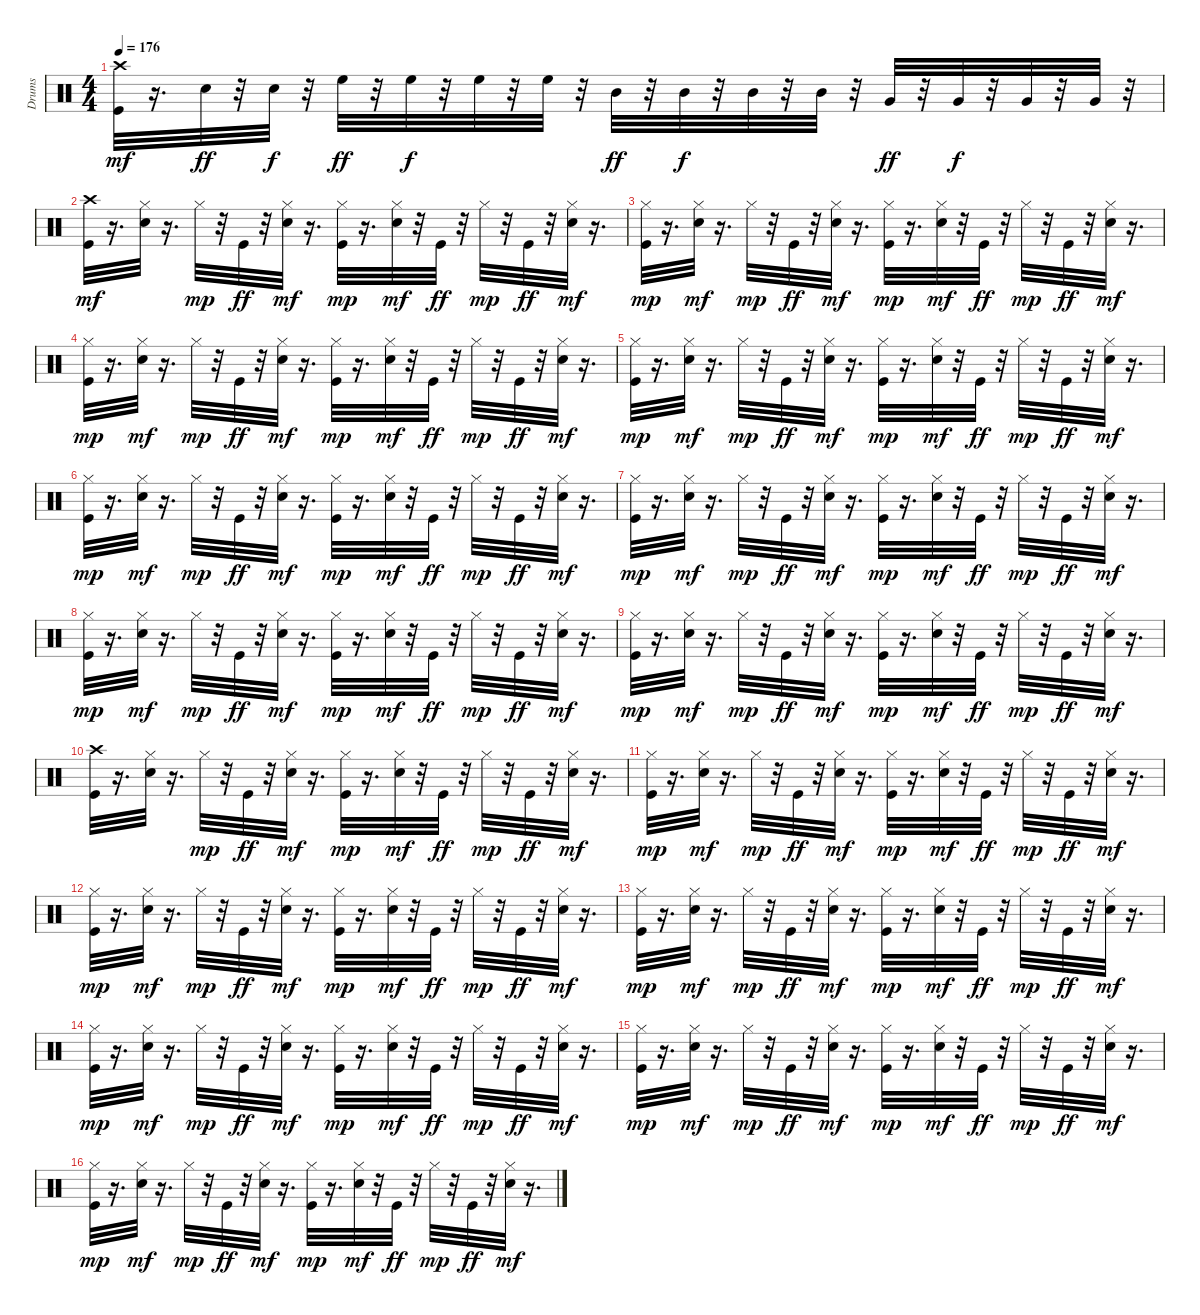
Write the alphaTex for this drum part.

\track ("Drums" "Drums") {instrument percussion}
\staff {score}
\articulation defaults
\ts (4 4)
\tempo 176
\clef neutral
\ks c
("Kick (hit)" "Crash high (hit)").32{dy mf} r.16{d} "Snare (hit) 2".32{dy ff} r.32 "Snare (hit) 2".32{dy f} r.32 "High Floor Tom (hit)".32{dy ff} r.32 "High Floor Tom (hit)".32{dy f} r.32 "High Floor Tom (hit)".32 r.32 "High Floor Tom (hit)".32 r.32 "Mid Tom (hit)".32{dy ff} r.32 "Mid Tom (hit)".32{dy f} r.32 "Mid Tom (hit)".32 r.32 "Mid Tom (hit)".32 r.32 "Very Low Tom (hit)".32{dy ff} r.32 "Very Low Tom (hit)".32{dy f} r.32 "Very Low Tom (hit)".32 r.32 "Very Low Tom (hit)".32 r.32 |
("Kick (hit)" "Crash high (hit)").32{dy mf} r.16{d} ("Snare (hit) 2" "Hi-Hat (closed)").32 r.16{d} "Hi-Hat (closed)".32{dy mp} r.32 "Kick (hit)".32{dy ff} r.32 ("Snare (hit) 2" "Hi-Hat (closed)").32{dy mf} r.16{d} ("Kick (hit)" "Hi-Hat (closed)").32{dy mp} r.16{d} ("Snare (hit) 2" "Hi-Hat (closed)").32{dy mf} r.32 "Kick (hit)".32{dy ff} r.32 "Hi-Hat (closed)".32{dy mp} r.32 "Kick (hit)".32{dy ff} r.32 ("Snare (hit) 2" "Hi-Hat (closed)").32{dy mf} r.16{d} |
("Kick (hit)" "Hi-Hat (closed)").32{dy mp} r.16{d} ("Snare (hit) 2" "Hi-Hat (closed)").32{dy mf} r.16{d} "Hi-Hat (closed)".32{dy mp} r.32 "Kick (hit)".32{dy ff} r.32 ("Snare (hit) 2" "Hi-Hat (closed)").32{dy mf} r.16{d} ("Kick (hit)" "Hi-Hat (closed)").32{dy mp} r.16{d} ("Snare (hit) 2" "Hi-Hat (closed)").32{dy mf} r.32 "Kick (hit)".32{dy ff} r.32 "Hi-Hat (closed)".32{dy mp} r.32 "Kick (hit)".32{dy ff} r.32 ("Snare (hit) 2" "Hi-Hat (closed)").32{dy mf} r.16{d} |
("Kick (hit)" "Hi-Hat (closed)").32{dy mp} r.16{d} ("Snare (hit) 2" "Hi-Hat (closed)").32{dy mf} r.16{d} "Hi-Hat (closed)".32{dy mp} r.32 "Kick (hit)".32{dy ff} r.32 ("Snare (hit) 2" "Hi-Hat (closed)").32{dy mf} r.16{d} ("Kick (hit)" "Hi-Hat (closed)").32{dy mp} r.16{d} ("Snare (hit) 2" "Hi-Hat (closed)").32{dy mf} r.32 "Kick (hit)".32{dy ff} r.32 "Hi-Hat (closed)".32{dy mp} r.32 "Kick (hit)".32{dy ff} r.32 ("Snare (hit) 2" "Hi-Hat (closed)").32{dy mf} r.16{d} |
("Kick (hit)" "Hi-Hat (closed)").32{dy mp} r.16{d} ("Snare (hit) 2" "Hi-Hat (closed)").32{dy mf} r.16{d} "Hi-Hat (closed)".32{dy mp} r.32 "Kick (hit)".32{dy ff} r.32 ("Snare (hit) 2" "Hi-Hat (closed)").32{dy mf} r.16{d} ("Kick (hit)" "Hi-Hat (closed)").32{dy mp} r.16{d} ("Snare (hit) 2" "Hi-Hat (closed)").32{dy mf} r.32 "Kick (hit)".32{dy ff} r.32 "Hi-Hat (closed)".32{dy mp} r.32 "Kick (hit)".32{dy ff} r.32 ("Snare (hit) 2" "Hi-Hat (closed)").32{dy mf} r.16{d} |
("Kick (hit)" "Hi-Hat (closed)").32{dy mp} r.16{d} ("Snare (hit) 2" "Hi-Hat (closed)").32{dy mf} r.16{d} "Hi-Hat (closed)".32{dy mp} r.32 "Kick (hit)".32{dy ff} r.32 ("Snare (hit) 2" "Hi-Hat (closed)").32{dy mf} r.16{d} ("Kick (hit)" "Hi-Hat (closed)").32{dy mp} r.16{d} ("Snare (hit) 2" "Hi-Hat (closed)").32{dy mf} r.32 "Kick (hit)".32{dy ff} r.32 "Hi-Hat (closed)".32{dy mp} r.32 "Kick (hit)".32{dy ff} r.32 ("Snare (hit) 2" "Hi-Hat (closed)").32{dy mf} r.16{d} |
("Kick (hit)" "Hi-Hat (closed)").32{dy mp} r.16{d} ("Snare (hit) 2" "Hi-Hat (closed)").32{dy mf} r.16{d} "Hi-Hat (closed)".32{dy mp} r.32 "Kick (hit)".32{dy ff} r.32 ("Snare (hit) 2" "Hi-Hat (closed)").32{dy mf} r.16{d} ("Kick (hit)" "Hi-Hat (closed)").32{dy mp} r.16{d} ("Snare (hit) 2" "Hi-Hat (closed)").32{dy mf} r.32 "Kick (hit)".32{dy ff} r.32 "Hi-Hat (closed)".32{dy mp} r.32 "Kick (hit)".32{dy ff} r.32 ("Snare (hit) 2" "Hi-Hat (closed)").32{dy mf} r.16{d} |
("Kick (hit)" "Hi-Hat (closed)").32{dy mp} r.16{d} ("Snare (hit) 2" "Hi-Hat (closed)").32{dy mf} r.16{d} "Hi-Hat (closed)".32{dy mp} r.32 "Kick (hit)".32{dy ff} r.32 ("Snare (hit) 2" "Hi-Hat (closed)").32{dy mf} r.16{d} ("Kick (hit)" "Hi-Hat (closed)").32{dy mp} r.16{d} ("Snare (hit) 2" "Hi-Hat (closed)").32{dy mf} r.32 "Kick (hit)".32{dy ff} r.32 "Hi-Hat (closed)".32{dy mp} r.32 "Kick (hit)".32{dy ff} r.32 ("Snare (hit) 2" "Hi-Hat (closed)").32{dy mf} r.16{d} |
("Kick (hit)" "Hi-Hat (closed)").32{dy mp} r.16{d} ("Snare (hit) 2" "Hi-Hat (closed)").32{dy mf} r.16{d} "Hi-Hat (closed)".32{dy mp} r.32 "Kick (hit)".32{dy ff} r.32 ("Snare (hit) 2" "Hi-Hat (closed)").32{dy mf} r.16{d} ("Kick (hit)" "Hi-Hat (closed)").32{dy mp} r.16{d} ("Snare (hit) 2" "Hi-Hat (closed)").32{dy mf} r.32 "Kick (hit)".32{dy ff} r.32 "Hi-Hat (closed)".32{dy mp} r.32 "Kick (hit)".32{dy ff} r.32 ("Snare (hit) 2" "Hi-Hat (closed)").32{dy mf} r.16{d} |
("Kick (hit)" "Crash high (hit)").32 r.16{d} ("Snare (hit) 2" "Hi-Hat (closed)").32 r.16{d} "Hi-Hat (closed)".32{dy mp} r.32 "Kick (hit)".32{dy ff} r.32 ("Snare (hit) 2" "Hi-Hat (closed)").32{dy mf} r.16{d} ("Kick (hit)" "Hi-Hat (closed)").32{dy mp} r.16{d} ("Snare (hit) 2" "Hi-Hat (closed)").32{dy mf} r.32 "Kick (hit)".32{dy ff} r.32 "Hi-Hat (closed)".32{dy mp} r.32 "Kick (hit)".32{dy ff} r.32 ("Snare (hit) 2" "Hi-Hat (closed)").32{dy mf} r.16{d} |
("Kick (hit)" "Hi-Hat (closed)").32{dy mp} r.16{d} ("Snare (hit) 2" "Hi-Hat (closed)").32{dy mf} r.16{d} "Hi-Hat (closed)".32{dy mp} r.32 "Kick (hit)".32{dy ff} r.32 ("Snare (hit) 2" "Hi-Hat (closed)").32{dy mf} r.16{d} ("Kick (hit)" "Hi-Hat (closed)").32{dy mp} r.16{d} ("Snare (hit) 2" "Hi-Hat (closed)").32{dy mf} r.32 "Kick (hit)".32{dy ff} r.32 "Hi-Hat (closed)".32{dy mp} r.32 "Kick (hit)".32{dy ff} r.32 ("Snare (hit) 2" "Hi-Hat (closed)").32{dy mf} r.16{d} |
("Kick (hit)" "Hi-Hat (closed)").32{dy mp} r.16{d} ("Snare (hit) 2" "Hi-Hat (closed)").32{dy mf} r.16{d} "Hi-Hat (closed)".32{dy mp} r.32 "Kick (hit)".32{dy ff} r.32 ("Snare (hit) 2" "Hi-Hat (closed)").32{dy mf} r.16{d} ("Kick (hit)" "Hi-Hat (closed)").32{dy mp} r.16{d} ("Snare (hit) 2" "Hi-Hat (closed)").32{dy mf} r.32 "Kick (hit)".32{dy ff} r.32 "Hi-Hat (closed)".32{dy mp} r.32 "Kick (hit)".32{dy ff} r.32 ("Snare (hit) 2" "Hi-Hat (closed)").32{dy mf} r.16{d} |
("Kick (hit)" "Hi-Hat (closed)").32{dy mp} r.16{d} ("Snare (hit) 2" "Hi-Hat (closed)").32{dy mf} r.16{d} "Hi-Hat (closed)".32{dy mp} r.32 "Kick (hit)".32{dy ff} r.32 ("Snare (hit) 2" "Hi-Hat (closed)").32{dy mf} r.16{d} ("Kick (hit)" "Hi-Hat (closed)").32{dy mp} r.16{d} ("Snare (hit) 2" "Hi-Hat (closed)").32{dy mf} r.32 "Kick (hit)".32{dy ff} r.32 "Hi-Hat (closed)".32{dy mp} r.32 "Kick (hit)".32{dy ff} r.32 ("Snare (hit) 2" "Hi-Hat (closed)").32{dy mf} r.16{d} |
("Kick (hit)" "Hi-Hat (closed)").32{dy mp} r.16{d} ("Snare (hit) 2" "Hi-Hat (closed)").32{dy mf} r.16{d} "Hi-Hat (closed)".32{dy mp} r.32 "Kick (hit)".32{dy ff} r.32 ("Snare (hit) 2" "Hi-Hat (closed)").32{dy mf} r.16{d} ("Kick (hit)" "Hi-Hat (closed)").32{dy mp} r.16{d} ("Snare (hit) 2" "Hi-Hat (closed)").32{dy mf} r.32 "Kick (hit)".32{dy ff} r.32 "Hi-Hat (closed)".32{dy mp} r.32 "Kick (hit)".32{dy ff} r.32 ("Snare (hit) 2" "Hi-Hat (closed)").32{dy mf} r.16{d} |
("Kick (hit)" "Hi-Hat (closed)").32{dy mp} r.16{d} ("Snare (hit) 2" "Hi-Hat (closed)").32{dy mf} r.16{d} "Hi-Hat (closed)".32{dy mp} r.32 "Kick (hit)".32{dy ff} r.32 ("Snare (hit) 2" "Hi-Hat (closed)").32{dy mf} r.16{d} ("Kick (hit)" "Hi-Hat (closed)").32{dy mp} r.16{d} ("Snare (hit) 2" "Hi-Hat (closed)").32{dy mf} r.32 "Kick (hit)".32{dy ff} r.32 "Hi-Hat (closed)".32{dy mp} r.32 "Kick (hit)".32{dy ff} r.32 ("Snare (hit) 2" "Hi-Hat (closed)").32{dy mf} r.16{d} |
("Kick (hit)" "Hi-Hat (closed)").32{dy mp} r.16{d} ("Snare (hit) 2" "Hi-Hat (closed)").32{dy mf} r.16{d} "Hi-Hat (closed)".32{dy mp} r.32 "Kick (hit)".32{dy ff} r.32 ("Snare (hit) 2" "Hi-Hat (closed)").32{dy mf} r.16{d} ("Kick (hit)" "Hi-Hat (closed)").32{dy mp} r.16{d} ("Snare (hit) 2" "Hi-Hat (closed)").32{dy mf} r.32 "Kick (hit)".32{dy ff} r.32 "Hi-Hat (closed)".32{dy mp} r.32 "Kick (hit)".32{dy ff} r.32 ("Snare (hit) 2" "Hi-Hat (closed)").32{dy mf} r.16{d}
